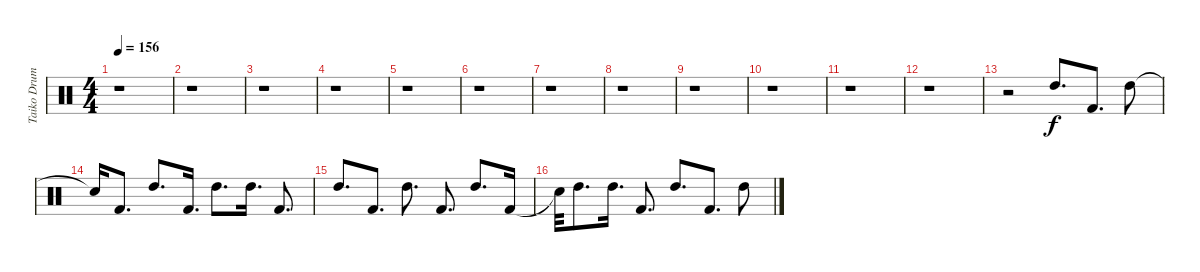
\track ("Taiko Drum" "Taiko Drum") {instrument percussion}
\staff {score}
\articulation defaults
\ts (4 4)
\tempo 156
\clef neutral
\ks c
r.1{dy f} |
r.1 |
r.1 |
r.1 |
r.1 |
r.1 |
r.1 |
r.1 |
r.1 |
r.1 |
r.1 |
r.1 |
r.2 "High Tom (hit)".8{d} "Kick (hit) 2".8{d} "High Tom (hit)".8 |
"Snare (hit)"{t}.16 "Kick (hit) 2".8{d} "High Tom (hit)".8{d} "Kick (hit) 2".16{d} "High Tom (hit)".8{d} "High Tom (hit)".16{d} "Kick (hit) 2".8{d} |
"High Tom (hit)".8{d} "Kick (hit) 2".8{d} "High Tom (hit)".8{d} "Kick (hit) 2".8{d} "High Tom (hit)".8{d} "Kick (hit) 2".16 |
"Snare (hit)"{t}.32 "High Tom (hit)".8{d} "High Tom (hit)".16{d} "Kick (hit) 2".8{d} "High Tom (hit)".8{d} "Kick (hit) 2".8{d} "High Tom (hit)".8
